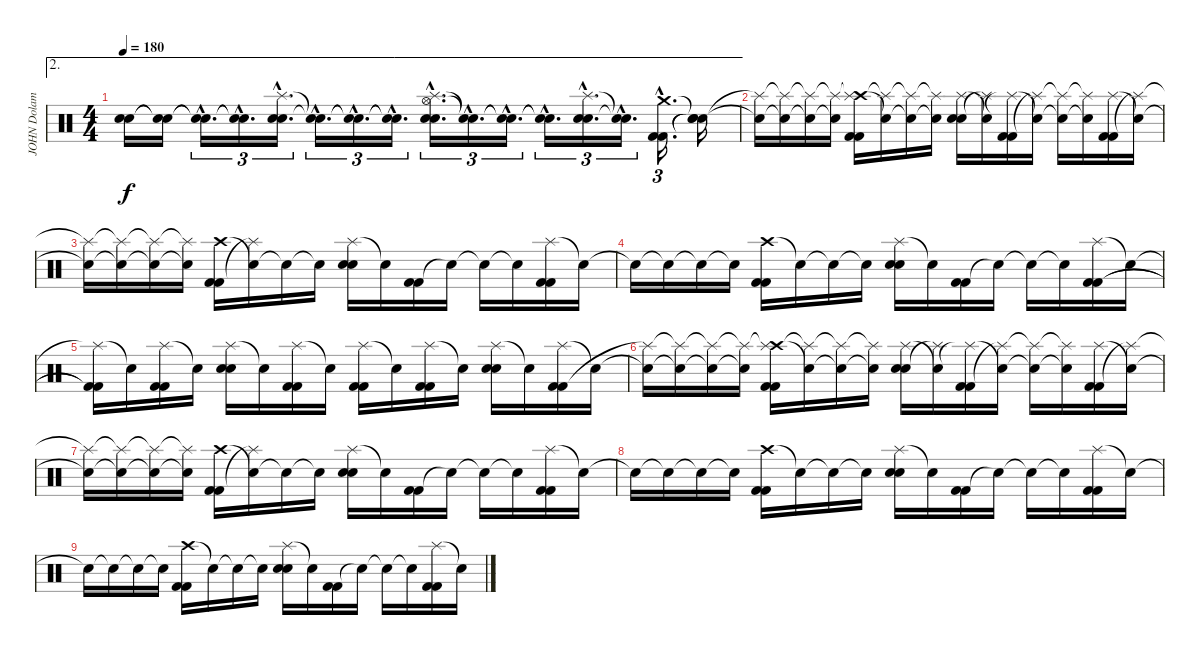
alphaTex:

\track ("JOHN Dolamyan" "JOHN Dolam") {instrument percussion}
\staff {score}
\articulation defaults
\ae 2
\ts (4 4)
\tempo 180
\clef neutral
\ks c
("Snare (hit)"{t} "Snare (hit)"{t}).16{dy f} ("Snare (hit)"{t} "Snare (hit)"{t}).16 ("Snare (hit)"{hac t} "Electric Snare (hit)"{hac t}).16{d tu (3 2)} ("Snare (hit)"{hac t} "Snare (hit)"{hac t}).16{d tu (3 2)} ("Splash (hit)"{hac} "Electric Snare (hit)"{hac} "Electric Snare (hit)"{hac}).16{d tu (3 2)} ("Snare (hit)"{hac t} "Snare (hit)"{hac t}).16{d tu (3 2)} ("Snare (hit)"{hac t} "Snare (hit)"{hac t}).16{d tu (3 2)} ("Snare (hit)"{hac t} "Snare (hit)"{hac t}).16{d tu (3 2)} ("Splash (hit)"{hac} "Hi-Hat (open)"{hac} "Electric Snare (hit)"{hac} "Electric Snare (hit)"{hac}).16{d tu (3 2)} ("Snare (hit)"{hac t} "Snare (hit)"{hac t}).16{d tu (3 2)} ("Snare (hit)"{hac t} "Snare (hit)"{hac t}).16{d tu (3 2)} ("Snare (hit)"{hac t} "Snare (hit)"{hac t}).16{d tu (3 2)} ("Splash (hit)"{hac} "Electric Snare (hit)"{hac} "Electric Snare (hit)"{hac}).16{d tu (3 2)} ("Snare (hit)"{hac t} "Snare (hit)"{hac t}).16{d tu (3 2)} ("Crash medium (hit)"{hac} "Kick (hit) 2"{hac} "Kick (hit) 2"{hac}).16{d tu (3 2)} ("Snare (hit)"{t} "Snare (hit)"{t} "Snare (hit)"{t}).16 |
("Snare (hit)"{t} "Splash (hit)"{t}).16 ("Snare (hit)"{t} "Splash (hit)"{t}).16 ("Snare (hit)"{t} "Splash (hit)"{t}).16 ("Snare (hit)"{t} "Splash (hit)"{t}).16 ("Crash high (hit)" "Splash (hit)"{t} "Kick (hit) 2" "Kick (hit) 2").16 ("Snare (hit)"{t} "Splash (hit)"{t}).16 ("Snare (hit)"{t} "Splash (hit)"{t}).16 ("Snare (hit)"{t} "Splash (hit)"{t}).16 ("Splash (hit)" "Electric Snare (hit)" "Electric Snare (hit)").16 ("Snare (hit)"{t} "Splash (hit)"{t}).16 ("Splash (hit)"{t} "Kick (hit) 2" "Kick (hit) 2").16 ("Snare (hit)"{t} "Splash (hit)"{t}).16 ("Snare (hit)"{t} "Splash (hit)"{t}).16 ("Snare (hit)"{t} "Splash (hit)"{t}).16 ("Splash (hit)" "Kick (hit) 2" "Kick (hit) 2").16 ("Snare (hit)"{t} "Splash (hit)"{t}).16 |
("Snare (hit)"{t} "Splash (hit)"{t}).16 ("Snare (hit)"{t} "Splash (hit)"{t}).16 ("Snare (hit)"{t} "Splash (hit)"{t}).16 ("Snare (hit)"{t} "Splash (hit)"{t}).16 ("Crash high (hit)" "Kick (hit) 2" "Kick (hit) 2").16 ("Snare (hit)"{t} "Splash (hit)"{t}).16 "Snare (hit)"{t}.16 "Snare (hit)"{t}.16 ("Splash (hit)" "Electric Snare (hit)" "Electric Snare (hit)").16 "Snare (hit)"{t}.16 ("Kick (hit) 2" "Kick (hit) 2").16 "Snare (hit)"{t}.16 "Snare (hit)"{t}.16 "Snare (hit)"{t}.16 ("Splash (hit)" "Kick (hit) 2" "Kick (hit) 2").16 "Snare (hit)"{t}.16 |
"Snare (hit)"{t}.16 "Snare (hit)"{t}.16 "Snare (hit)"{t}.16 "Snare (hit)"{t}.16 ("Crash high (hit)" "Kick (hit) 2" "Kick (hit) 2").16 "Snare (hit)"{t}.16 "Snare (hit)"{t}.16 "Snare (hit)"{t}.16 ("Splash (hit)" "Electric Snare (hit)" "Electric Snare (hit)").16 "Snare (hit)"{t}.16 ("Kick (hit) 2" "Kick (hit) 2").16 "Snare (hit)"{t}.16 "Snare (hit)"{t}.16 "Snare (hit)"{t}.16 ("Splash (hit)" "Kick (hit) 2" "Kick (hit) 2").16 "Snare (hit)"{t}.16 |
("Splash (hit)"{t} "Kick (hit) 2"{t} "Kick (hit) 2"{t}).16 "Snare (hit)"{t}.16 ("Splash (hit)" "Kick (hit) 2" "Kick (hit) 2").16 "Snare (hit)"{t}.16 ("Splash (hit)" "Electric Snare (hit)" "Electric Snare (hit)").16 "Snare (hit)"{t}.16 ("Splash (hit)" "Kick (hit) 2" "Kick (hit) 2").16 "Snare (hit)"{t}.16 ("Splash (hit)" "Kick (hit) 2" "Kick (hit) 2").16 "Snare (hit)"{t}.16 ("Splash (hit)" "Kick (hit) 2" "Kick (hit) 2").16 "Snare (hit)"{t}.16 ("Splash (hit)" "Electric Snare (hit)" "Electric Snare (hit)").16 "Snare (hit)"{t}.16 ("Splash (hit)" "Kick (hit) 2" "Kick (hit) 2").16 "Snare (hit)"{t}.16 |
("Snare (hit)"{t} "Splash (hit)"{t}).16 ("Snare (hit)"{t} "Splash (hit)"{t}).16 ("Snare (hit)"{t} "Splash (hit)"{t}).16 ("Snare (hit)"{t} "Splash (hit)"{t}).16 ("Crash high (hit)" "Splash (hit)"{t} "Kick (hit) 2" "Kick (hit) 2").16 ("Snare (hit)"{t} "Splash (hit)"{t}).16 ("Snare (hit)"{t} "Splash (hit)"{t}).16 ("Snare (hit)"{t} "Splash (hit)"{t}).16 ("Splash (hit)" "Electric Snare (hit)" "Electric Snare (hit)").16 ("Snare (hit)"{t} "Splash (hit)"{t}).16 ("Splash (hit)"{t} "Kick (hit) 2" "Kick (hit) 2").16 ("Snare (hit)"{t} "Splash (hit)"{t}).16 ("Snare (hit)"{t} "Splash (hit)"{t}).16 ("Snare (hit)"{t} "Splash (hit)"{t}).16 ("Splash (hit)" "Kick (hit) 2" "Kick (hit) 2").16 ("Snare (hit)"{t} "Splash (hit)"{t}).16 |
("Snare (hit)"{t} "Splash (hit)"{t}).16 ("Snare (hit)"{t} "Splash (hit)"{t}).16 ("Snare (hit)"{t} "Splash (hit)"{t}).16 ("Snare (hit)"{t} "Splash (hit)"{t}).16 ("Crash high (hit)" "Kick (hit) 2" "Kick (hit) 2").16 ("Snare (hit)"{t} "Splash (hit)"{t}).16 "Snare (hit)"{t}.16 "Snare (hit)"{t}.16 ("Splash (hit)" "Electric Snare (hit)" "Electric Snare (hit)").16 "Snare (hit)"{t}.16 ("Kick (hit) 2" "Kick (hit) 2").16 "Snare (hit)"{t}.16 "Snare (hit)"{t}.16 "Snare (hit)"{t}.16 ("Splash (hit)" "Kick (hit) 2" "Kick (hit) 2").16 "Snare (hit)"{t}.16 |
"Snare (hit)"{t}.16 "Snare (hit)"{t}.16 "Snare (hit)"{t}.16 "Snare (hit)"{t}.16 ("Crash high (hit)" "Kick (hit) 2" "Kick (hit) 2").16 "Snare (hit)"{t}.16 "Snare (hit)"{t}.16 "Snare (hit)"{t}.16 ("Splash (hit)" "Electric Snare (hit)" "Electric Snare (hit)").16 "Snare (hit)"{t}.16 ("Kick (hit) 2" "Kick (hit) 2").16 "Snare (hit)"{t}.16 "Snare (hit)"{t}.16 "Snare (hit)"{t}.16 ("Splash (hit)" "Kick (hit) 2" "Kick (hit) 2").16 "Snare (hit)"{t}.16 |
"Snare (hit)"{t}.16 "Snare (hit)"{t}.16 "Snare (hit)"{t}.16 "Snare (hit)"{t}.16 ("Crash high (hit)" "Kick (hit) 2" "Kick (hit) 2").16 "Snare (hit)"{t}.16 "Snare (hit)"{t}.16 "Snare (hit)"{t}.16 ("Splash (hit)" "Electric Snare (hit)" "Electric Snare (hit)").16 "Snare (hit)"{t}.16 ("Kick (hit) 2" "Kick (hit) 2").16 "Snare (hit)"{t}.16 "Snare (hit)"{t}.16 "Snare (hit)"{t}.16 ("Splash (hit)" "Kick (hit) 2" "Kick (hit) 2").16 "Snare (hit)"{t}.16
